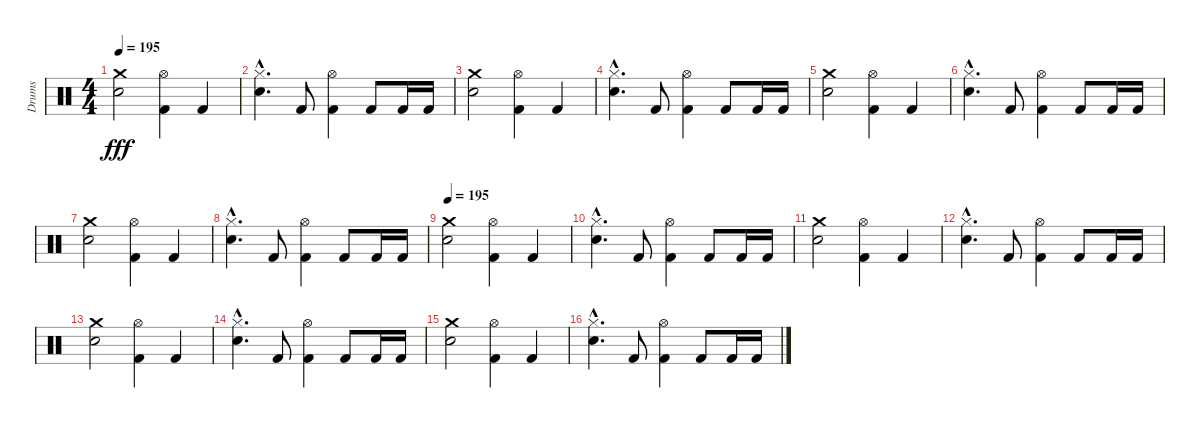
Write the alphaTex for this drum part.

\track ("Drums" "Drums") {instrument percussion}
\staff {score}
\articulation defaults
\ts (4 4)
\tempo 195
\clef neutral
\ks c
("Electric Snare (hit)" "Crash medium (hit)").2{dy fff} ("Kick (hit) 2" "Hi-Hat (open)").4 "Kick (hit) 2".4 |
("Hi-Hat (closed)"{hac} "Snare (hit) 2"{hac}).4{d} "Kick (hit) 2".8 ("Hi-Hat (open)" "Kick (hit) 2").4 "Kick (hit) 2".8 "Kick (hit) 2".16 "Kick (hit) 2".16 |
("Electric Snare (hit)" "Crash medium (hit)").2 ("Kick (hit) 2" "Hi-Hat (open)").4 "Kick (hit) 2".4 |
("Hi-Hat (closed)"{hac} "Snare (hit) 2"{hac}).4{d} "Kick (hit) 2".8 ("Hi-Hat (open)" "Kick (hit) 2").4 "Kick (hit) 2".8 "Kick (hit) 2".16 "Kick (hit) 2".16 |
("Electric Snare (hit)" "Crash medium (hit)").2 ("Kick (hit) 2" "Hi-Hat (open)").4 "Kick (hit) 2".4 |
("Hi-Hat (closed)"{hac} "Snare (hit) 2"{hac}).4{d} "Kick (hit) 2".8 ("Hi-Hat (open)" "Kick (hit) 2").4 "Kick (hit) 2".8 "Kick (hit) 2".16 "Kick (hit) 2".16 |
("Electric Snare (hit)" "Crash medium (hit)").2 ("Kick (hit) 2" "Hi-Hat (open)").4 "Kick (hit) 2".4 |
("Hi-Hat (closed)"{hac} "Snare (hit) 2"{hac}).4{d} "Kick (hit) 2".8 ("Hi-Hat (open)" "Kick (hit) 2").4 "Kick (hit) 2".8 "Kick (hit) 2".16 "Kick (hit) 2".16 |
\tempo 195
("Electric Snare (hit)" "Crash medium (hit)").2 ("Kick (hit) 2" "Hi-Hat (open)").4 "Kick (hit) 2".4 |
("Hi-Hat (closed)"{hac} "Snare (hit) 2"{hac}).4{d} "Kick (hit) 2".8 ("Hi-Hat (open)" "Kick (hit) 2").4 "Kick (hit) 2".8 "Kick (hit) 2".16 "Kick (hit) 2".16 |
("Electric Snare (hit)" "Crash medium (hit)").2 ("Kick (hit) 2" "Hi-Hat (open)").4 "Kick (hit) 2".4 |
("Hi-Hat (closed)"{hac} "Snare (hit) 2"{hac}).4{d} "Kick (hit) 2".8 ("Hi-Hat (open)" "Kick (hit) 2").4 "Kick (hit) 2".8 "Kick (hit) 2".16 "Kick (hit) 2".16 |
("Electric Snare (hit)" "Crash medium (hit)").2 ("Kick (hit) 2" "Hi-Hat (open)").4 "Kick (hit) 2".4 |
("Hi-Hat (closed)"{hac} "Snare (hit) 2"{hac}).4{d} "Kick (hit) 2".8 ("Hi-Hat (open)" "Kick (hit) 2").4 "Kick (hit) 2".8 "Kick (hit) 2".16 "Kick (hit) 2".16 |
("Electric Snare (hit)" "Crash medium (hit)").2 ("Kick (hit) 2" "Hi-Hat (open)").4 "Kick (hit) 2".4 |
("Hi-Hat (closed)"{hac} "Snare (hit) 2"{hac}).4{d} "Kick (hit) 2".8 ("Hi-Hat (open)" "Kick (hit) 2").4 "Kick (hit) 2".8 "Kick (hit) 2".16 "Kick (hit) 2".16
